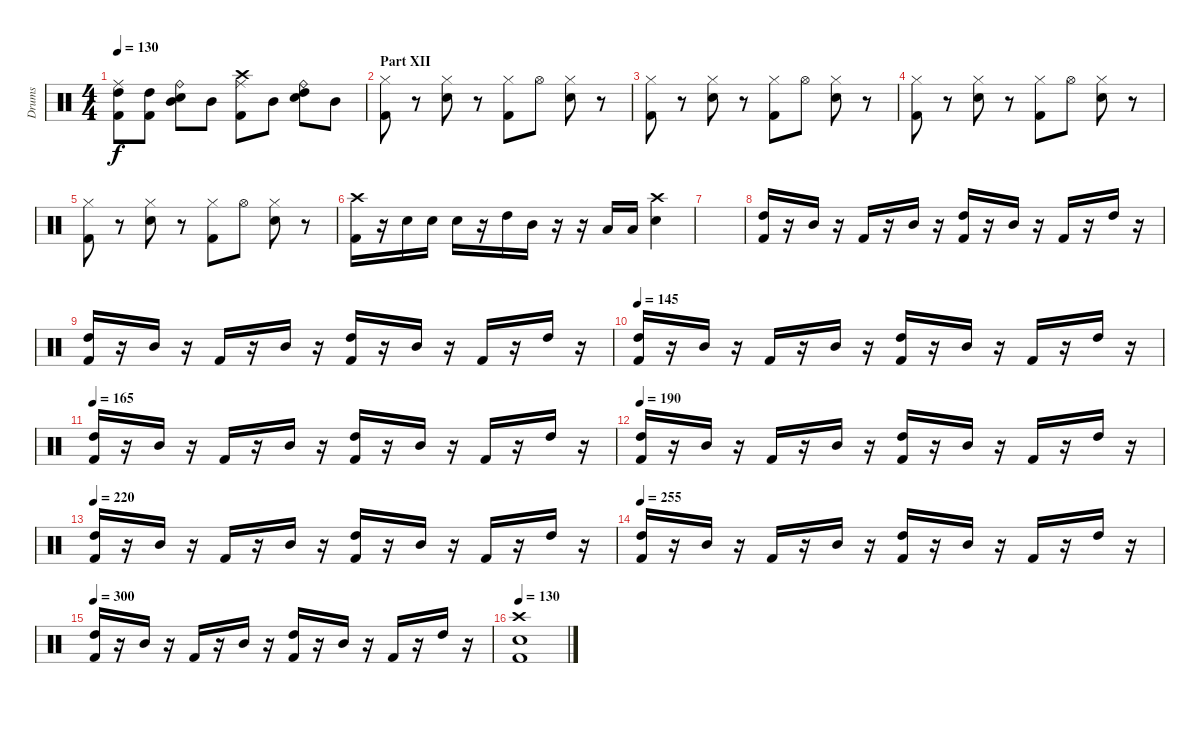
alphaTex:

\track ("Drums" "Drums") {instrument percussion}
\staff {score}
\articulation defaults
\ts (4 4)
\tempo 130
\clef neutral
\ks c
("Kick (hit) 2" "High Tom (hit)" "Ride (middle)").8{dy f} ("Kick (hit) 2" "High Tom (hit)").8 ("Snare (hit) 2" "Mid Tom (hit)" "Ride (bell)").8 "Mid Tom (hit)".8 ("Kick (hit) 2" "Crash high (hit)" "Ride (middle)").8 "Mid Tom (hit)".8 ("Snare (hit) 2" "High Tom (hit)" "Ride (bell)").8 "Mid Tom (hit)".8 |
\section ("" "Part XII")
("Kick (hit) 2" "Hi-Hat (closed)").8 r.8 ("Snare (hit) 2" "Hi-Hat (closed)").8 r.8 ("Kick (hit) 2" "Hi-Hat (closed)").8 "Hi-Hat (open)".8 ("Snare (hit) 2" "Hi-Hat (closed)").8 r.8 |
("Kick (hit) 2" "Hi-Hat (closed)").8 r.8 ("Snare (hit) 2" "Hi-Hat (closed)").8 r.8 ("Kick (hit) 2" "Hi-Hat (closed)").8 "Hi-Hat (open)".8 ("Snare (hit) 2" "Hi-Hat (closed)").8 r.8 |
("Kick (hit) 2" "Hi-Hat (closed)").8 r.8 ("Snare (hit) 2" "Hi-Hat (closed)").8 r.8 ("Kick (hit) 2" "Hi-Hat (closed)").8 "Hi-Hat (open)".8 ("Snare (hit) 2" "Hi-Hat (closed)").8 r.8 |
("Kick (hit) 2" "Hi-Hat (closed)").8 r.8 ("Snare (hit) 2" "Hi-Hat (closed)").8 r.8 ("Kick (hit) 2" "Hi-Hat (closed)").8 "Hi-Hat (open)".8 ("Snare (hit) 2" "Hi-Hat (closed)").8 r.8 |
("Kick (hit) 2" "Crash high (hit)").16 r.16 "Snare (hit) 2".16 "Snare (hit) 2".16 "Snare (hit) 2".16 r.16 "High Tom (hit)".16 "Mid Tom (hit)".16 r.16 r.16 "Low Tom (hit)".16 "Low Tom (hit)".16 ("Snare (hit) 2" "Crash high (hit)").4 |
|
("Kick (hit) 2" "High Tom (hit)").16 r.16 "Mid Tom (hit)".16 r.16 "Kick (hit) 2".16 r.16 "Mid Tom (hit)".16 r.16 ("Kick (hit) 2" "High Tom (hit)").16 r.16 "Mid Tom (hit)".16 r.16 "Kick (hit) 2".16 r.16 "High Tom (hit)".16 r.16 |
("Kick (hit) 2" "High Tom (hit)").16 r.16 "Mid Tom (hit)".16 r.16 "Kick (hit) 2".16 r.16 "Mid Tom (hit)".16 r.16 ("Kick (hit) 2" "High Tom (hit)").16 r.16 "Mid Tom (hit)".16 r.16 "Kick (hit) 2".16 r.16 "High Tom (hit)".16 r.16 |
\tempo 145
("Kick (hit) 2" "High Tom (hit)").16 r.16 "Mid Tom (hit)".16 r.16 "Kick (hit) 2".16 r.16 "Mid Tom (hit)".16 r.16 ("Kick (hit) 2" "High Tom (hit)").16 r.16 "Mid Tom (hit)".16 r.16 "Kick (hit) 2".16 r.16 "High Tom (hit)".16 r.16 |
\tempo 165
("Kick (hit) 2" "High Tom (hit)").16 r.16 "Mid Tom (hit)".16 r.16 "Kick (hit) 2".16 r.16 "Mid Tom (hit)".16 r.16 ("Kick (hit) 2" "High Tom (hit)").16 r.16 "Mid Tom (hit)".16 r.16 "Kick (hit) 2".16 r.16 "High Tom (hit)".16 r.16 |
\tempo 190
("Kick (hit) 2" "High Tom (hit)").16 r.16 "Mid Tom (hit)".16 r.16 "Kick (hit) 2".16 r.16 "Mid Tom (hit)".16 r.16 ("Kick (hit) 2" "High Tom (hit)").16 r.16 "Mid Tom (hit)".16 r.16 "Kick (hit) 2".16 r.16 "High Tom (hit)".16 r.16 |
\tempo 220
("Kick (hit) 2" "High Tom (hit)").16 r.16 "Mid Tom (hit)".16 r.16 "Kick (hit) 2".16 r.16 "Mid Tom (hit)".16 r.16 ("Kick (hit) 2" "High Tom (hit)").16 r.16 "Mid Tom (hit)".16 r.16 "Kick (hit) 2".16 r.16 "High Tom (hit)".16 r.16 |
\tempo 255
("Kick (hit) 2" "High Tom (hit)").16 r.16 "Mid Tom (hit)".16 r.16 "Kick (hit) 2".16 r.16 "Mid Tom (hit)".16 r.16 ("Kick (hit) 2" "High Tom (hit)").16 r.16 "Mid Tom (hit)".16 r.16 "Kick (hit) 2".16 r.16 "High Tom (hit)".16 r.16 |
\tempo 300
("Kick (hit) 2" "High Tom (hit)").16 r.16 "Mid Tom (hit)".16 r.16 "Kick (hit) 2".16 r.16 "Mid Tom (hit)".16 r.16 ("Kick (hit) 2" "High Tom (hit)").16 r.16 "Mid Tom (hit)".16 r.16 "Kick (hit) 2".16 r.16 "High Tom (hit)".16 r.16 |
\tempo 130
("Kick (hit) 2" "Snare (hit) 2" "Crash high (hit)").1
